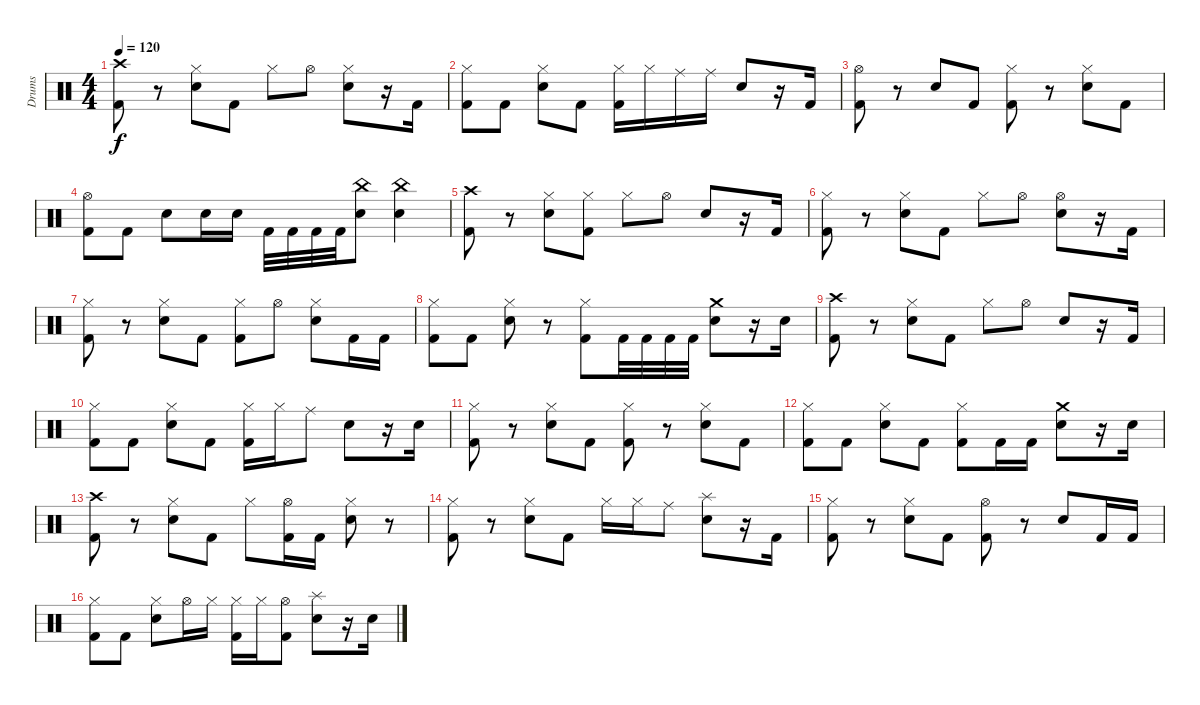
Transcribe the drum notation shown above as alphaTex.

\track ("Drums" "Drums") {instrument percussion}
\staff {score}
\articulation defaults
\ts (4 4)
\tempo 120
\clef neutral
\ks c
("Crash high (hit)" "Kick (hit) 2").8{dy f} r.8 ("Hi-Hat (closed)" "Electric Snare (hit)").8 "Kick (hit) 2".8 "Hi-Hat (closed)".8 "Hi-Hat (open)".8 ("Hi-Hat (closed)" "Electric Snare (hit)").8 r.16 "Kick (hit) 2".16 |
("Hi-Hat (closed)" "Kick (hit) 2").8 "Kick (hit) 2".8 ("Hi-Hat (closed)" "Electric Snare (hit)").8 "Kick (hit) 2".8 ("Hi-Hat (closed)" "Kick (hit) 2").16 "Hi-Hat (closed)".16 "Ride (middle)".16 "Ride (middle)".16 "Electric Snare (hit)".8 r.16 "Kick (hit) 2".16 |
("Hi-Hat (open)" "Kick (hit) 2").8 r.8 "Electric Snare (hit)".8 "Kick (hit) 2".8 ("Hi-Hat (closed)" "Kick (hit) 2").8 r.8 ("Hi-Hat (closed)" "Electric Snare (hit)").8 "Kick (hit) 2".8 |
("Hi-Hat (open)" "Kick (hit) 2").8 "Kick (hit) 2".8 "Electric Snare (hit)".8 "Electric Snare (hit)".16 "Electric Snare (hit)".16 "Kick (hit) 2".32 "Kick (hit) 2".32 "Kick (hit) 2".32 "Kick (hit) 2".32 ("China (hit)" "Electric Snare (hit)").8 ("China (hit)" "Electric Snare (hit)").4 |
("Crash high (hit)" "Kick (hit) 2").8 r.8 ("Hi-Hat (closed)" "Electric Snare (hit)").8 ("Hi-Hat (closed)" "Kick (hit) 2").8 "Hi-Hat (closed)".8 "Hi-Hat (open)".8 "Electric Snare (hit)".8 r.16 "Kick (hit) 2".16 |
("Hi-Hat (closed)" "Kick (hit) 2").8 r.8 ("Hi-Hat (closed)" "Electric Snare (hit)").8 "Kick (hit) 2".8 "Hi-Hat (closed)".8 "Hi-Hat (open)".8 ("Hi-Hat (open)" "Electric Snare (hit)").8 r.16 "Kick (hit) 2".16 |
("Hi-Hat (closed)" "Kick (hit) 2").8 r.8 ("Hi-Hat (closed)" "Electric Snare (hit)").8 "Kick (hit) 2".8 ("Hi-Hat (closed)" "Kick (hit) 2").8 "Hi-Hat (open)".8 ("Hi-Hat (closed)" "Electric Snare (hit)").8 "Kick (hit) 2".16 "Kick (hit) 2".16 |
("Hi-Hat (closed)" "Kick (hit) 2").8 "Kick (hit) 2".8 ("Hi-Hat (closed)" "Electric Snare (hit)").8 r.8 ("Hi-Hat (closed)" "Kick (hit) 2").8 "Kick (hit) 2".32 "Kick (hit) 2".32 "Kick (hit) 2".32 "Kick (hit) 2".32 ("Crash medium (hit)" "Electric Snare (hit)").8 r.16 "Electric Snare (hit)".16 |
("Crash high (hit)" "Kick (hit) 2").8 r.8 ("Hi-Hat (closed)" "Electric Snare (hit)").8 "Kick (hit) 2".8 "Hi-Hat (closed)".8 "Hi-Hat (open)".8 "Electric Snare (hit)".8 r.16 "Kick (hit) 2".16 |
("Hi-Hat (closed)" "Kick (hit) 2").8 "Kick (hit) 2".8 ("Hi-Hat (closed)" "Electric Snare (hit)").8 "Kick (hit) 2".8 ("Hi-Hat (closed)" "Kick (hit) 2").16 "Hi-Hat (closed)".16 "Ride (middle)".8 "Electric Snare (hit)".8 r.16 "Electric Snare (hit)".16 |
("Hi-Hat (closed)" "Kick (hit) 2").8 r.8 ("Hi-Hat (closed)" "Electric Snare (hit)").8 "Kick (hit) 2".8 ("Hi-Hat (closed)" "Kick (hit) 2").8 r.8 ("Hi-Hat (closed)" "Electric Snare (hit)").8 "Kick (hit) 2".8 |
("Hi-Hat (closed)" "Kick (hit) 2").8 "Kick (hit) 2".8 ("Hi-Hat (closed)" "Electric Snare (hit)").8 "Kick (hit) 2".8 ("Hi-Hat (closed)" "Kick (hit) 2").8 "Kick (hit) 2".16 "Kick (hit) 2".16 ("Crash medium (hit)" "Electric Snare (hit)").8 r.16 "Electric Snare (hit)".16 |
("Crash high (hit)" "Kick (hit) 2").8 r.8 ("Hi-Hat (closed)" "Electric Snare (hit)").8 "Kick (hit) 2".8 "Hi-Hat (closed)".8 ("Hi-Hat (open)" "Kick (hit) 2").16 "Kick (hit) 2".16 ("Hi-Hat (closed)" "Electric Snare (hit)").8 r.8 |
("Hi-Hat (closed)" "Kick (hit) 2").8 r.8 ("Hi-Hat (closed)" "Electric Snare (hit)").8 "Kick (hit) 2".8 "Hi-Hat (closed)".16 "Hi-Hat (closed)".16 "Ride (middle)".8 ("Splash (hit)" "Electric Snare (hit)").8 r.16 "Kick (hit) 2".16 |
("Hi-Hat (closed)" "Kick (hit) 2").8 r.8 ("Hi-Hat (closed)" "Electric Snare (hit)").8 "Kick (hit) 2".8 ("Hi-Hat (open)" "Kick (hit) 2").8 r.8 "Electric Snare (hit)".8 "Kick (hit) 2".16 "Kick (hit) 2".16 |
("Hi-Hat (closed)" "Kick (hit) 2").8 "Kick (hit) 2".8 ("Hi-Hat (closed)" "Electric Snare (hit)").8 "Hi-Hat (open)".16 "Hi-Hat (closed)".16 ("Hi-Hat (closed)" "Kick (hit) 2").16 "Hi-Hat (closed)".16 ("Hi-Hat (open)" "Kick (hit) 2").8 ("Splash (hit)" "Electric Snare (hit)").8 r.16 "Electric Snare (hit)".16
